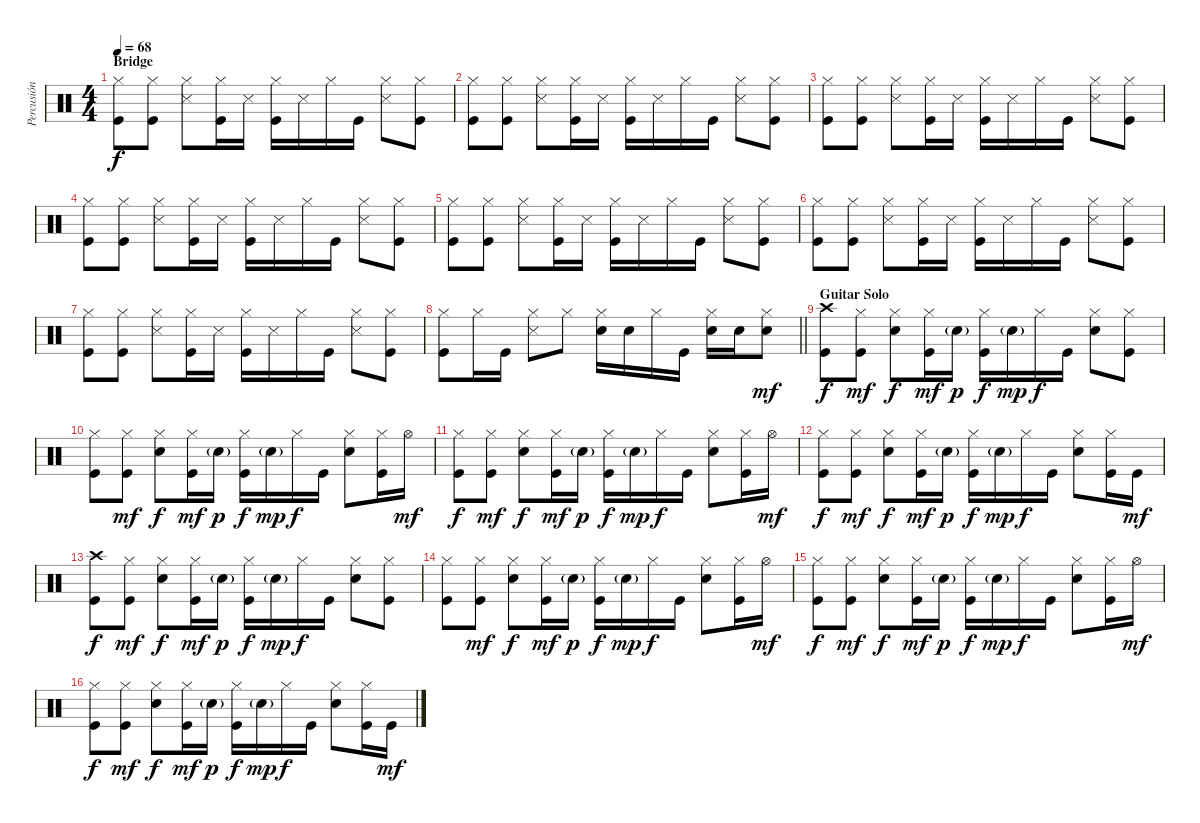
\track ("Percusión" "Percusión") {instrument percussion}
\staff {score}
\articulation defaults
\ts (4 4)
\section ("" "Bridge")
\tempo 68
\clef neutral
\ks c
("Hi-Hat (closed)" "Kick (hit)").8{dy f} ("Hi-Hat (closed)" "Kick (hit)").8 ("Hi-Hat (closed)" "Snare (side stick) 3").8 ("Hi-Hat (closed)" "Kick (hit)").16 "Snare (side stick) 3".16 ("Hi-Hat (closed)" "Kick (hit)").16 "Snare (side stick) 3".16 "Hi-Hat (closed)".16 "Kick (hit)".16 ("Hi-Hat (closed)" "Snare (side stick) 3").8 ("Hi-Hat (closed)" "Kick (hit)").8 |
("Hi-Hat (closed)" "Kick (hit)").8 ("Hi-Hat (closed)" "Kick (hit)").8 ("Hi-Hat (closed)" "Snare (side stick) 3").8 ("Hi-Hat (closed)" "Kick (hit)").16 "Snare (side stick) 3".16 ("Hi-Hat (closed)" "Kick (hit)").16 "Snare (side stick) 3".16 "Hi-Hat (closed)".16 "Kick (hit)".16 ("Hi-Hat (closed)" "Snare (side stick) 3").8 ("Hi-Hat (closed)" "Kick (hit)").8 |
("Hi-Hat (closed)" "Kick (hit)").8 ("Hi-Hat (closed)" "Kick (hit)").8 ("Hi-Hat (closed)" "Snare (side stick) 3").8 ("Hi-Hat (closed)" "Kick (hit)").16 "Snare (side stick) 3".16 ("Hi-Hat (closed)" "Kick (hit)").16 "Snare (side stick) 3".16 "Hi-Hat (closed)".16 "Kick (hit)".16 ("Hi-Hat (closed)" "Snare (side stick) 3").8 ("Hi-Hat (closed)" "Kick (hit)").8 |
("Hi-Hat (closed)" "Kick (hit)").8 ("Hi-Hat (closed)" "Kick (hit)").8 ("Hi-Hat (closed)" "Snare (side stick) 3").8 ("Hi-Hat (closed)" "Kick (hit)").16 "Snare (side stick) 3".16 ("Hi-Hat (closed)" "Kick (hit)").16 "Snare (side stick) 3".16 "Hi-Hat (closed)".16 "Kick (hit)".16 ("Hi-Hat (closed)" "Snare (side stick) 3").8 ("Hi-Hat (closed)" "Kick (hit)").8 |
("Hi-Hat (closed)" "Kick (hit)").8 ("Hi-Hat (closed)" "Kick (hit)").8 ("Hi-Hat (closed)" "Snare (side stick) 3").8 ("Hi-Hat (closed)" "Kick (hit)").16 "Snare (side stick) 3".16 ("Hi-Hat (closed)" "Kick (hit)").16 "Snare (side stick) 3".16 "Hi-Hat (closed)".16 "Kick (hit)".16 ("Hi-Hat (closed)" "Snare (side stick) 3").8 ("Hi-Hat (closed)" "Kick (hit)").8 |
("Hi-Hat (closed)" "Kick (hit)").8 ("Hi-Hat (closed)" "Kick (hit)").8 ("Hi-Hat (closed)" "Snare (side stick) 3").8 ("Hi-Hat (closed)" "Kick (hit)").16 "Snare (side stick) 3".16 ("Hi-Hat (closed)" "Kick (hit)").16 "Snare (side stick) 3".16 "Hi-Hat (closed)".16 "Kick (hit)".16 ("Hi-Hat (closed)" "Snare (side stick) 3").8 ("Hi-Hat (closed)" "Kick (hit)").8 |
("Hi-Hat (closed)" "Kick (hit)").8 ("Hi-Hat (closed)" "Kick (hit)").8 ("Hi-Hat (closed)" "Snare (side stick) 3").8 ("Hi-Hat (closed)" "Kick (hit)").16 "Snare (side stick) 3".16 ("Hi-Hat (closed)" "Kick (hit)").16 "Snare (side stick) 3".16 "Hi-Hat (closed)".16 "Kick (hit)".16 ("Hi-Hat (closed)" "Snare (side stick) 3").8 ("Hi-Hat (closed)" "Kick (hit)").8 |
\barLineRight lightlight
("Hi-Hat (closed)" "Kick (hit)").8 "Hi-Hat (closed)".16 "Kick (hit)".16 ("Hi-Hat (closed)" "Snare (side stick) 3").8 "Hi-Hat (closed)".8 ("Hi-Hat (closed)" "Snare (hit) 2").16 "Snare (hit) 2".16 "Hi-Hat (closed)".16 "Kick (hit)".16 ("Hi-Hat (closed)" "Snare (hit) 2").16 "Snare (hit) 2".16 ("Hi-Hat (closed)" "Snare (hit) 2").8{dy mf} |
\section ("" "Guitar Solo")
("Crash high (hit)" "Kick (hit)").8{dy f} ("Hi-Hat (closed)" "Kick (hit)").8{dy mf} ("Hi-Hat (closed)" "Snare (hit) 2").8{dy f} ("Hi-Hat (closed)" "Kick (hit)").16{dy mf} "Snare (hit) 2"{g}.16{dy p} ("Hi-Hat (closed)" "Kick (hit)").16{dy f} "Snare (hit) 2"{g}.16{dy mp} "Hi-Hat (closed)".16{dy f} "Kick (hit)".16 ("Hi-Hat (closed)" "Snare (hit) 2").8 ("Hi-Hat (closed)" "Kick (hit)").8 |
("Hi-Hat (closed)" "Kick (hit)").8 ("Hi-Hat (closed)" "Kick (hit)").8{dy mf} ("Hi-Hat (closed)" "Snare (hit) 2").8{dy f} ("Hi-Hat (closed)" "Kick (hit)").16{dy mf} "Snare (hit) 2"{g}.16{dy p} ("Hi-Hat (closed)" "Kick (hit)").16{dy f} "Snare (hit) 2"{g}.16{dy mp} "Hi-Hat (closed)".16{dy f} "Kick (hit)".16 ("Hi-Hat (closed)" "Snare (hit) 2").8 ("Hi-Hat (closed)" "Kick (hit)").16 "Hi-Hat (open)".16{dy mf} |
("Hi-Hat (closed)" "Kick (hit)").8{dy f} ("Hi-Hat (closed)" "Kick (hit)").8{dy mf} ("Hi-Hat (closed)" "Snare (hit) 2").8{dy f} ("Hi-Hat (closed)" "Kick (hit)").16{dy mf} "Snare (hit) 2"{g}.16{dy p} ("Hi-Hat (closed)" "Kick (hit)").16{dy f} "Snare (hit) 2"{g}.16{dy mp} "Hi-Hat (closed)".16{dy f} "Kick (hit)".16 ("Hi-Hat (closed)" "Snare (hit) 2").8 ("Hi-Hat (closed)" "Kick (hit)").16 "Hi-Hat (open)".16{dy mf} |
("Hi-Hat (closed)" "Kick (hit)").8{dy f} ("Hi-Hat (closed)" "Kick (hit)").8{dy mf} ("Hi-Hat (closed)" "Snare (hit) 2").8{dy f} ("Hi-Hat (closed)" "Kick (hit)").16{dy mf} "Snare (hit) 2"{g}.16{dy p} ("Hi-Hat (closed)" "Kick (hit)").16{dy f} "Snare (hit) 2"{g}.16{dy mp} "Hi-Hat (closed)".16{dy f} "Kick (hit)".16 ("Hi-Hat (closed)" "Snare (hit) 2").8 ("Hi-Hat (closed)" "Kick (hit)").16 "Kick (hit)".16{dy mf} |
("Crash high (hit)" "Kick (hit)").8{dy f} ("Hi-Hat (closed)" "Kick (hit)").8{dy mf} ("Hi-Hat (closed)" "Snare (hit) 2").8{dy f} ("Hi-Hat (closed)" "Kick (hit)").16{dy mf} "Snare (hit) 2"{g}.16{dy p} ("Hi-Hat (closed)" "Kick (hit)").16{dy f} "Snare (hit) 2"{g}.16{dy mp} "Hi-Hat (closed)".16{dy f} "Kick (hit)".16 ("Hi-Hat (closed)" "Snare (hit) 2").8 ("Hi-Hat (closed)" "Kick (hit)").8 |
("Hi-Hat (closed)" "Kick (hit)").8 ("Hi-Hat (closed)" "Kick (hit)").8{dy mf} ("Hi-Hat (closed)" "Snare (hit) 2").8{dy f} ("Hi-Hat (closed)" "Kick (hit)").16{dy mf} "Snare (hit) 2"{g}.16{dy p} ("Hi-Hat (closed)" "Kick (hit)").16{dy f} "Snare (hit) 2"{g}.16{dy mp} "Hi-Hat (closed)".16{dy f} "Kick (hit)".16 ("Hi-Hat (closed)" "Snare (hit) 2").8 ("Hi-Hat (closed)" "Kick (hit)").16 "Hi-Hat (open)".16{dy mf} |
("Hi-Hat (closed)" "Kick (hit)").8{dy f} ("Hi-Hat (closed)" "Kick (hit)").8{dy mf} ("Hi-Hat (closed)" "Snare (hit) 2").8{dy f} ("Hi-Hat (closed)" "Kick (hit)").16{dy mf} "Snare (hit) 2"{g}.16{dy p} ("Hi-Hat (closed)" "Kick (hit)").16{dy f} "Snare (hit) 2"{g}.16{dy mp} "Hi-Hat (closed)".16{dy f} "Kick (hit)".16 ("Hi-Hat (closed)" "Snare (hit) 2").8 ("Hi-Hat (closed)" "Kick (hit)").16 "Hi-Hat (open)".16{dy mf} |
("Hi-Hat (closed)" "Kick (hit)").8{dy f} ("Hi-Hat (closed)" "Kick (hit)").8{dy mf} ("Hi-Hat (closed)" "Snare (hit) 2").8{dy f} ("Hi-Hat (closed)" "Kick (hit)").16{dy mf} "Snare (hit) 2"{g}.16{dy p} ("Hi-Hat (closed)" "Kick (hit)").16{dy f} "Snare (hit) 2"{g}.16{dy mp} "Hi-Hat (closed)".16{dy f} "Kick (hit)".16 ("Hi-Hat (closed)" "Snare (hit) 2").8 ("Hi-Hat (closed)" "Kick (hit)").16 "Kick (hit)".16{dy mf}
